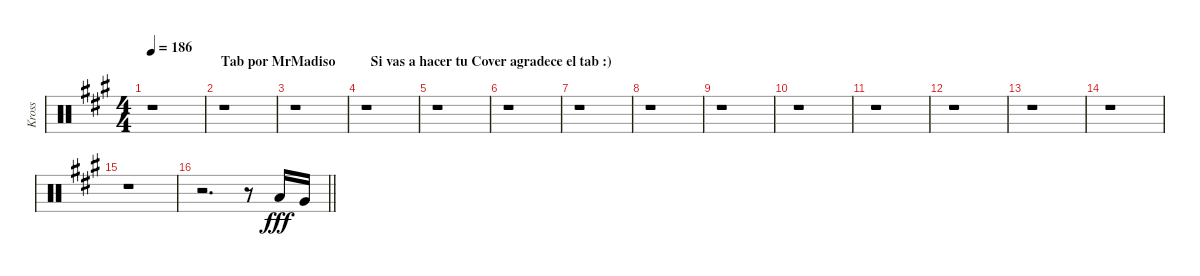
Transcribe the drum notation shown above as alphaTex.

\track ("Kross" "Kross") {instrument percussion}
\staff {score}
\articulation defaults
\ts (4 4)
\section ("" "                     Tab por MrMadiso          Si vas a hacer tu Cover agradece el tab :)")
\tempo 186
\clef neutral
\ks a
r.1{dy fff} |
r.1 |
r.1 |
r.1 |
r.1 |
r.1 |
r.1 |
r.1 |
r.1 |
r.1 |
r.1 |
r.1 |
r.1 |
r.1 |
r.1 |
\barLineRight lightlight
r.2{d} r.8 "Low Floor Tom (hit)".16 "Very Low Tom (hit)".16
